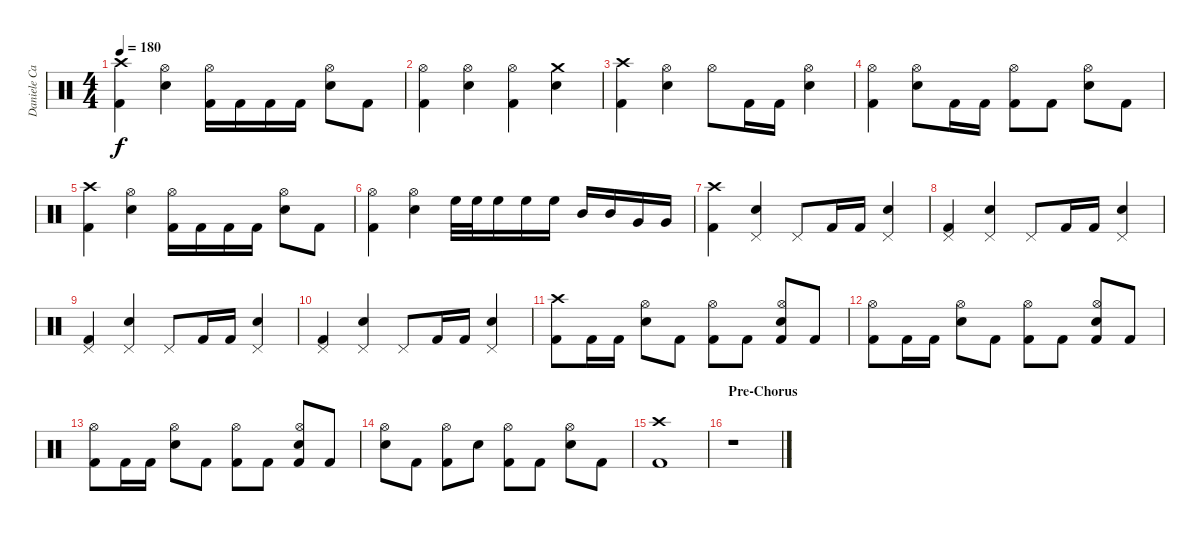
\track ("Daniele Carbonera " "Daniele Ca") {instrument percussion}
\staff {score}
\articulation defaults
\ts (4 4)
\tempo 180
\clef neutral
\ks c
("Crash high (hit)" "Kick (hit) 2").4{dy f} ("Hi-Hat (open)" "Electric Snare (hit)").4 ("Hi-Hat (open)" "Kick (hit) 2").16 "Kick (hit) 2".16 "Kick (hit) 2".16 "Kick (hit) 2".16 ("Hi-Hat (open)" "Electric Snare (hit)").8 "Kick (hit) 2".8 |
("Hi-Hat (open)" "Kick (hit) 2").4 ("Hi-Hat (open)" "Electric Snare (hit)").4 ("Hi-Hat (open)" "Kick (hit) 2").4 ("Crash medium (hit)" "Electric Snare (hit)").4 |
("Crash high (hit)" "Kick (hit) 2").4 ("Hi-Hat (open)" "Electric Snare (hit)").4 "Hi-Hat (open)".8 "Kick (hit) 2".16 "Kick (hit) 2".16 ("Hi-Hat (open)" "Electric Snare (hit)").4 |
("Hi-Hat (open)" "Kick (hit) 2").4 ("Hi-Hat (open)" "Electric Snare (hit)").8 "Kick (hit) 2".16 "Kick (hit) 2".16 ("Hi-Hat (open)" "Kick (hit) 2").8 "Kick (hit) 2".8 ("Hi-Hat (open)" "Electric Snare (hit)").8 "Kick (hit) 2".8 |
("Crash high (hit)" "Kick (hit) 2").4 ("Hi-Hat (open)" "Electric Snare (hit)").4 ("Hi-Hat (open)" "Kick (hit) 2").16 "Kick (hit) 2".16 "Kick (hit) 2".16 "Kick (hit) 2".16 ("Hi-Hat (open)" "Electric Snare (hit)").8 "Kick (hit) 2".8 |
("Hi-Hat (open)" "Kick (hit) 2").4 ("Hi-Hat (open)" "Electric Snare (hit)").4 "High Floor Tom (hit)".32 "High Floor Tom (hit)".32 "High Floor Tom (hit)".16 "High Floor Tom (hit)".16 "High Floor Tom (hit)".16 "Mid Tom (hit)".16 "Mid Tom (hit)".16 "Very Low Tom (hit)".16 "Very Low Tom (hit)".16 |
("Crash high (hit)" "Kick (hit) 2").4 ("Pedal Hi-Hat (hit)" "Electric Snare (hit)").4 "Pedal Hi-Hat (hit)".8 "Kick (hit) 2".16 "Kick (hit) 2".16 ("Pedal Hi-Hat (hit)" "Electric Snare (hit)").4 |
("Pedal Hi-Hat (hit)" "Kick (hit) 2").4 ("Pedal Hi-Hat (hit)" "Electric Snare (hit)").4 "Pedal Hi-Hat (hit)".8 "Kick (hit) 2".16 "Kick (hit) 2".16 ("Pedal Hi-Hat (hit)" "Electric Snare (hit)").4 |
("Pedal Hi-Hat (hit)" "Kick (hit) 2").4 ("Pedal Hi-Hat (hit)" "Electric Snare (hit)").4 "Pedal Hi-Hat (hit)".8 "Kick (hit) 2".16 "Kick (hit) 2".16 ("Pedal Hi-Hat (hit)" "Electric Snare (hit)").4 |
("Pedal Hi-Hat (hit)" "Kick (hit) 2").4 ("Pedal Hi-Hat (hit)" "Electric Snare (hit)").4 "Pedal Hi-Hat (hit)".8 "Kick (hit) 2".16 "Kick (hit) 2".16 ("Pedal Hi-Hat (hit)" "Electric Snare (hit)").4 |
("Crash high (hit)" "Kick (hit) 2").8 "Kick (hit) 2".16 "Kick (hit) 2".16 ("Hi-Hat (open)" "Electric Snare (hit)").8 "Kick (hit) 2".8 ("Hi-Hat (open)" "Kick (hit) 2").8 "Kick (hit) 2".8 ("Hi-Hat (open)" "Electric Snare (hit)" "Kick (hit) 2").8 "Kick (hit) 2".8 |
("Hi-Hat (open)" "Kick (hit) 2").8 "Kick (hit) 2".16 "Kick (hit) 2".16 ("Hi-Hat (open)" "Electric Snare (hit)").8 "Kick (hit) 2".8 ("Hi-Hat (open)" "Kick (hit) 2").8 "Kick (hit) 2".8 ("Hi-Hat (open)" "Electric Snare (hit)" "Kick (hit) 2").8 "Kick (hit) 2".8 |
("Hi-Hat (open)" "Kick (hit) 2").8 "Kick (hit) 2".16 "Kick (hit) 2".16 ("Hi-Hat (open)" "Electric Snare (hit)").8 "Kick (hit) 2".8 ("Hi-Hat (open)" "Kick (hit) 2").8 "Kick (hit) 2".8 ("Hi-Hat (open)" "Electric Snare (hit)" "Kick (hit) 2").8 "Kick (hit) 2".8 |
("Hi-Hat (open)" "Electric Snare (hit)").8 "Kick (hit) 2".8 ("Hi-Hat (open)" "Kick (hit) 2").8 "Electric Snare (hit)".8 ("Hi-Hat (open)" "Kick (hit) 2").8 "Kick (hit) 2".8 ("Hi-Hat (open)" "Electric Snare (hit)").8 "Kick (hit) 2".8 |
("Crash high (hit)" "Kick (hit) 2").1 |
\section ("" "Pre-Chorus")
r.1
